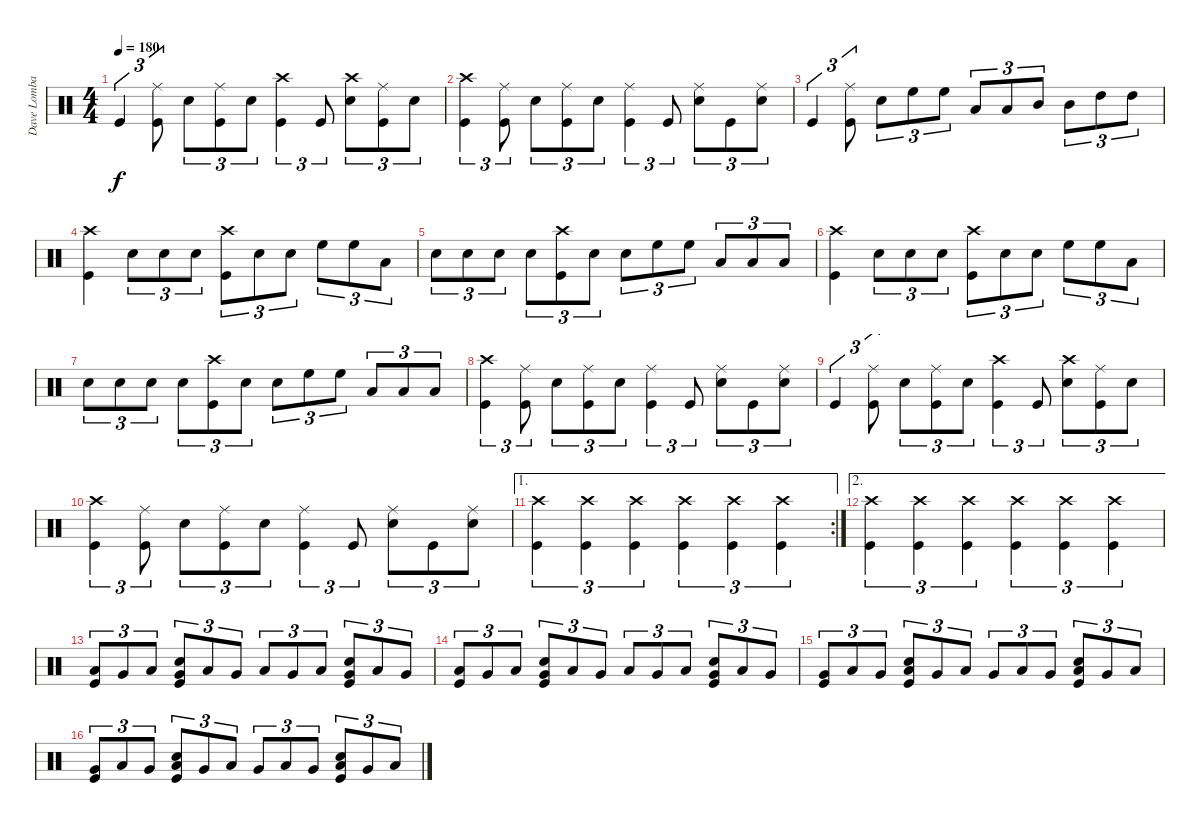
\track ("Dave Lombardo" "Dave Lomba") {instrument percussion}
\staff {score}
\articulation defaults
\ts (4 4)
\tempo 180
\clef neutral
\ks c "Kick (hit)".4{tu (3 2) dy f}
("Ride (middle)" "Kick (hit)").8{tu (3 2)} "Snare (hit) 2".8{tu (3 2)} ("Ride (middle)" "Kick (hit)").8{tu (3 2)} "Snare (hit) 2".8{tu (3 2)} ("Crash high (hit)" "Kick (hit)").4{tu (3 2)} "Kick (hit)".8{tu (3 2)} ("Crash high (hit)" "Snare (hit) 2").8{tu (3 2)} ("Ride (middle)" "Kick (hit)").8{tu (3 2)} "Snare (hit) 2".8{tu (3 2)} |
("Crash high (hit)" "Kick (hit)").4{tu (3 2)} ("Ride (middle)" "Kick (hit)").8{tu (3 2)} "Snare (hit) 2".8{tu (3 2)} ("Ride (middle)" "Kick (hit)").8{tu (3 2)} "Snare (hit) 2".8{tu (3 2)} ("Ride (middle)" "Kick (hit)").4{tu (3 2)} "Kick (hit)".8{tu (3 2)} ("Ride (middle)" "Snare (hit) 2").8{tu (3 2)} "Kick (hit)".8{tu (3 2)} ("Ride (middle)" "Snare (hit) 2").8{tu (3 2)} |
"Kick (hit)".4{tu (3 2)} ("Ride (middle)" "Kick (hit)").8{tu (3 2)} "Snare (hit) 2".8{tu (3 2)} "High Floor Tom (hit)".8{tu (3 2)} "High Floor Tom (hit)".8{tu (3 2)} "Low Tom (hit)".8{tu (3 2)} "Low Tom (hit)".8{tu (3 2)} "Mid Tom (hit)".8{tu (3 2)} "Mid Tom (hit)".8{tu (3 2)} "High Tom (hit)".8{tu (3 2)} "High Tom (hit)".8{tu (3 2)} |
("Kick (hit)" "Crash high (hit)").4 "Snare (hit) 2".8{tu (3 2)} "Snare (hit) 2".8{tu (3 2)} "Snare (hit) 2".8{tu (3 2)} ("Crash high (hit)" "Kick (hit)").8{tu (3 2)} "Snare (hit) 2".8{tu (3 2)} "Snare (hit) 2".8{tu (3 2)} "High Floor Tom (hit)".8{tu (3 2)} "High Floor Tom (hit)".8{tu (3 2)} "Low Floor Tom (hit)".8{tu (3 2)} |
"Snare (hit) 2".8{tu (3 2)} "Snare (hit) 2".8{tu (3 2)} "Snare (hit) 2".8{tu (3 2)} "Snare (hit) 2".8{tu (3 2)} ("Crash high (hit)" "Kick (hit)").8{tu (3 2)} "Snare (hit) 2".8{tu (3 2)} "Snare (hit) 2".8{tu (3 2)} "High Floor Tom (hit)".8{tu (3 2)} "High Floor Tom (hit)".8{tu (3 2)} "Low Floor Tom (hit)".8{tu (3 2)} "Low Floor Tom (hit)".8{tu (3 2)} "Low Floor Tom (hit)".8{tu (3 2)} |
("Kick (hit)" "Crash high (hit)").4 "Snare (hit) 2".8{tu (3 2)} "Snare (hit) 2".8{tu (3 2)} "Snare (hit) 2".8{tu (3 2)} ("Crash high (hit)" "Kick (hit)").8{tu (3 2)} "Snare (hit) 2".8{tu (3 2)} "Snare (hit) 2".8{tu (3 2)} "High Floor Tom (hit)".8{tu (3 2)} "High Floor Tom (hit)".8{tu (3 2)} "Low Floor Tom (hit)".8{tu (3 2)} |
"Snare (hit) 2".8{tu (3 2)} "Snare (hit) 2".8{tu (3 2)} "Snare (hit) 2".8{tu (3 2)} "Snare (hit) 2".8{tu (3 2)} ("Crash high (hit)" "Kick (hit)").8{tu (3 2)} "Snare (hit) 2".8{tu (3 2)} "Snare (hit) 2".8{tu (3 2)} "High Floor Tom (hit)".8{tu (3 2)} "High Floor Tom (hit)".8{tu (3 2)} "Low Floor Tom (hit)".8{tu (3 2)} "Low Floor Tom (hit)".8{tu (3 2)} "Low Floor Tom (hit)".8{tu (3 2)} |
("Crash high (hit)" "Kick (hit)").4{tu (3 2)} ("Ride (middle)" "Kick (hit)").8{tu (3 2)} "Snare (hit) 2".8{tu (3 2)} ("Ride (middle)" "Kick (hit)").8{tu (3 2)} "Snare (hit) 2".8{tu (3 2)} ("Ride (middle)" "Kick (hit)").4{tu (3 2)} "Kick (hit)".8{tu (3 2)} ("Ride (middle)" "Snare (hit) 2").8{tu (3 2)} "Kick (hit)".8{tu (3 2)} ("Ride (middle)" "Snare (hit) 2").8{tu (3 2)} |
"Kick (hit)".4{tu (3 2)} ("Ride (middle)" "Kick (hit)").8{tu (3 2)} "Snare (hit) 2".8{tu (3 2)} ("Ride (middle)" "Kick (hit)").8{tu (3 2)} "Snare (hit) 2".8{tu (3 2)} ("Crash high (hit)" "Kick (hit)").4{tu (3 2)} "Kick (hit)".8{tu (3 2)} ("Crash high (hit)" "Snare (hit) 2").8{tu (3 2)} ("Ride (middle)" "Kick (hit)").8{tu (3 2)} "Snare (hit) 2".8{tu (3 2)} |
("Crash high (hit)" "Kick (hit)").4{tu (3 2)} ("Ride (middle)" "Kick (hit)").8{tu (3 2)} "Snare (hit) 2".8{tu (3 2)} ("Ride (middle)" "Kick (hit)").8{tu (3 2)} "Snare (hit) 2".8{tu (3 2)} ("Ride (middle)" "Kick (hit)").4{tu (3 2)} "Kick (hit)".8{tu (3 2)} ("Ride (middle)" "Snare (hit) 2").8{tu (3 2)} "Kick (hit)".8{tu (3 2)} ("Ride (middle)" "Snare (hit) 2").8{tu (3 2)} |
\ae 1
\rc 2
("Crash high (hit)" "Kick (hit)").4{tu (3 2)} ("Crash high (hit)" "Kick (hit)").4{tu (3 2)} ("Crash high (hit)" "Kick (hit)").4{tu (3 2)} ("Crash high (hit)" "Kick (hit)").4{tu (3 2)} ("Crash high (hit)" "Kick (hit)").4{tu (3 2)} ("Crash high (hit)" "Kick (hit)").4{tu (3 2)} |
\ae 2
("Crash high (hit)" "Kick (hit)").4{tu (3 2)} ("Crash high (hit)" "Kick (hit)").4{tu (3 2)} ("Crash high (hit)" "Kick (hit)").4{tu (3 2)} ("Crash high (hit)" "Kick (hit)").4{tu (3 2)} ("Crash high (hit)" "Kick (hit)").4{tu (3 2)} ("Crash high (hit)" "Kick (hit)").4{tu (3 2)} |
("Low Floor Tom (hit)" "Kick (hit)").8{tu (3 2)} "Very Low Tom (hit)".8{tu (3 2)} "Low Floor Tom (hit)".8{tu (3 2)} ("Kick (hit)" "Very Low Tom (hit)" "Snare (hit) 2").8{tu (3 2)} "Low Floor Tom (hit)".8{tu (3 2)} "Very Low Tom (hit)".8{tu (3 2)} "Low Floor Tom (hit)".8{tu (3 2)} "Very Low Tom (hit)".8{tu (3 2)} "Low Floor Tom (hit)".8{tu (3 2)} ("Kick (hit)" "Very Low Tom (hit)" "Snare (hit) 2").8{tu (3 2)} "Low Floor Tom (hit)".8{tu (3 2)} "Very Low Tom (hit)".8{tu (3 2)} |
("Low Floor Tom (hit)" "Kick (hit)").8{tu (3 2)} "Very Low Tom (hit)".8{tu (3 2)} "Low Floor Tom (hit)".8{tu (3 2)} ("Kick (hit)" "Very Low Tom (hit)" "Snare (hit) 2").8{tu (3 2)} "Low Floor Tom (hit)".8{tu (3 2)} "Very Low Tom (hit)".8{tu (3 2)} "Low Floor Tom (hit)".8{tu (3 2)} "Very Low Tom (hit)".8{tu (3 2)} "Low Floor Tom (hit)".8{tu (3 2)} ("Kick (hit)" "Very Low Tom (hit)" "Snare (hit) 2").8{tu (3 2)} "Low Floor Tom (hit)".8{tu (3 2)} "Very Low Tom (hit)".8{tu (3 2)} |
("Very Low Tom (hit)" "Kick (hit)").8{tu (3 2)} "Low Tom (hit)".8{tu (3 2)} "Very Low Tom (hit)".8{tu (3 2)} ("Kick (hit)" "Low Tom (hit)" "Snare (hit) 2").8{tu (3 2)} "Very Low Tom (hit)".8{tu (3 2)} "Low Tom (hit)".8{tu (3 2)} "Very Low Tom (hit)".8{tu (3 2)} "Low Tom (hit)".8{tu (3 2)} "Very Low Tom (hit)".8{tu (3 2)} ("Kick (hit)" "Low Tom (hit)" "Snare (hit) 2").8{tu (3 2)} "Very Low Tom (hit)".8{tu (3 2)} "Low Tom (hit)".8{tu (3 2)} |
("Very Low Tom (hit)" "Kick (hit)").8{tu (3 2)} "Low Tom (hit)".8{tu (3 2)} "Very Low Tom (hit)".8{tu (3 2)} ("Kick (hit)" "Low Tom (hit)" "Snare (hit) 2").8{tu (3 2)} "Very Low Tom (hit)".8{tu (3 2)} "Low Tom (hit)".8{tu (3 2)} "Very Low Tom (hit)".8{tu (3 2)} "Low Tom (hit)".8{tu (3 2)} "Very Low Tom (hit)".8{tu (3 2)} ("Kick (hit)" "Low Tom (hit)" "Snare (hit) 2").8{tu (3 2)} "Very Low Tom (hit)".8{tu (3 2)} "Low Tom (hit)".8{tu (3 2)}
